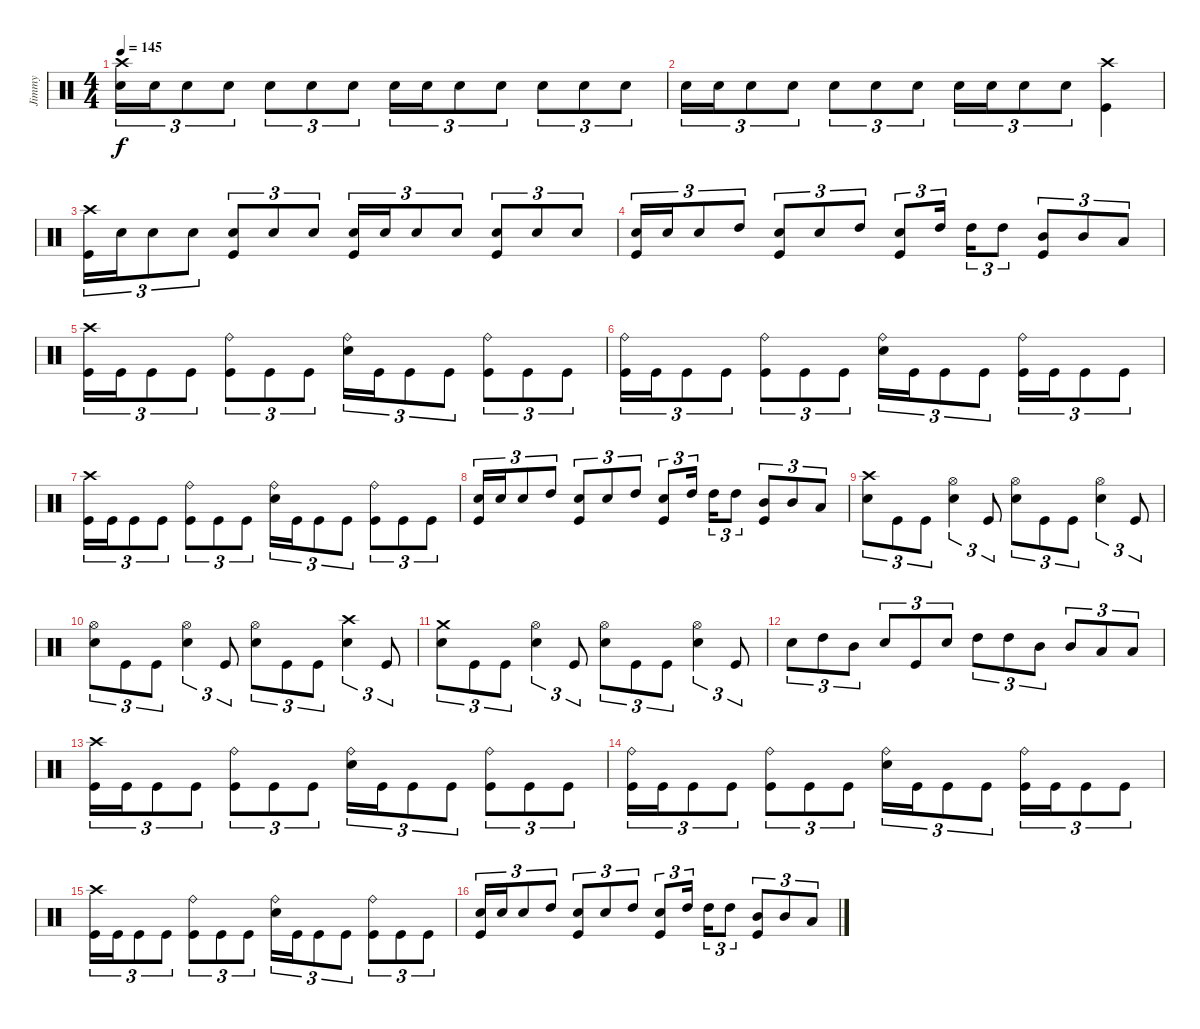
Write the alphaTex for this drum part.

\track ("Jimmy" "Jimmy") {instrument percussion}
\staff {score}
\articulation defaults
\ts (4 4)
\tempo 145
\clef neutral
\ks c
("Snare (hit) 2" "Crash high (hit)").16{tu (3 2) dy f volume 16} "Snare (hit) 2".16{tu (3 2)} "Snare (hit) 2".8{tu (3 2)} "Snare (hit) 2".8{tu (3 2)} "Snare (hit) 2".8{tu (3 2)} "Snare (hit) 2".8{tu (3 2)} "Snare (hit) 2".8{tu (3 2)} "Snare (hit) 2".16{tu (3 2)} "Snare (hit) 2".16{tu (3 2)} "Snare (hit) 2".8{tu (3 2)} "Snare (hit) 2".8{tu (3 2)} "Snare (hit) 2".8{tu (3 2)} "Snare (hit) 2".8{tu (3 2)} "Snare (hit) 2".8{tu (3 2)} |
"Snare (hit) 2".16{tu (3 2)} "Snare (hit) 2".16{tu (3 2)} "Snare (hit) 2".8{tu (3 2)} "Snare (hit) 2".8{tu (3 2)} "Snare (hit) 2".8{tu (3 2)} "Snare (hit) 2".8{tu (3 2)} "Snare (hit) 2".8{tu (3 2)} "Snare (hit) 2".16{tu (3 2)} "Snare (hit) 2".16{tu (3 2)} "Snare (hit) 2".8{tu (3 2)} "Snare (hit) 2".8{tu (3 2)} ("Kick (hit)" "Crash high (hit)").4 |
("Kick (hit)" "Crash high (hit)").16{tu (3 2)} "Snare (hit) 2".16{tu (3 2)} "Snare (hit) 2".8{tu (3 2)} "Snare (hit) 2".8{tu (3 2)} ("Snare (hit) 2" "Kick (hit)").8{tu (3 2)} "Snare (hit) 2".8{tu (3 2)} "Snare (hit) 2".8{tu (3 2)} ("Snare (hit) 2" "Kick (hit)").16{tu (3 2)} "Snare (hit) 2".16{tu (3 2)} "Snare (hit) 2".8{tu (3 2)} "Snare (hit) 2".8{tu (3 2)} ("Snare (hit) 2" "Kick (hit)").8{tu (3 2)} "Snare (hit) 2".8{tu (3 2)} "Snare (hit) 2".8{tu (3 2)} |
("Snare (hit) 2" "Kick (hit)").16{tu (3 2)} "Snare (hit) 2".16{tu (3 2)} "Snare (hit) 2".8{tu (3 2)} "High Tom (hit)".8{tu (3 2)} ("Snare (hit) 2" "Kick (hit)").8{tu (3 2)} "Snare (hit) 2".8{tu (3 2)} "High Tom (hit)".8{tu (3 2)} ("Snare (hit) 2" "Kick (hit)").8{tu (3 2)} "High Tom (hit)".16{tu (3 2) beam splitsecondary} "High Tom (hit)".16{tu (3 2)} "High Tom (hit)".8{tu (3 2)} ("Mid Tom (hit)" "Kick (hit)").8{tu (3 2)} "Mid Tom (hit)".8{tu (3 2)} "Low Tom (hit)".8{tu (3 2)} |
("Crash high (hit)" "Kick (hit)").16{tu (3 2)} "Kick (hit)".16{tu (3 2)} "Kick (hit)".8{tu (3 2)} "Kick (hit)".8{tu (3 2)} ("Kick (hit)" "Ride (bell)").8{tu (3 2)} "Kick (hit)".8{tu (3 2)} "Kick (hit)".8{tu (3 2)} ("Snare (hit) 2" "Ride (bell)").16{tu (3 2)} "Kick (hit)".16{tu (3 2)} "Kick (hit)".8{tu (3 2)} "Kick (hit)".8{tu (3 2)} ("Kick (hit)" "Ride (bell)").8{tu (3 2)} "Kick (hit)".8{tu (3 2)} "Kick (hit)".8{tu (3 2)} |
("Ride (bell)" "Kick (hit)").16{tu (3 2)} "Kick (hit)".16{tu (3 2)} "Kick (hit)".8{tu (3 2)} "Kick (hit)".8{tu (3 2)} ("Kick (hit)" "Ride (bell)").8{tu (3 2)} "Kick (hit)".8{tu (3 2)} "Kick (hit)".8{tu (3 2)} ("Snare (hit) 2" "Ride (bell)").16{tu (3 2)} "Kick (hit)".16{tu (3 2)} "Kick (hit)".8{tu (3 2)} "Kick (hit)".8{tu (3 2)} ("Kick (hit)" "Ride (bell)").16{tu (3 2)} "Kick (hit)".16{tu (3 2)} "Kick (hit)".8{tu (3 2)} "Kick (hit)".8{tu (3 2)} |
("Crash high (hit)" "Kick (hit)").16{tu (3 2)} "Kick (hit)".16{tu (3 2)} "Kick (hit)".8{tu (3 2)} "Kick (hit)".8{tu (3 2)} ("Kick (hit)" "Ride (bell)").8{tu (3 2)} "Kick (hit)".8{tu (3 2)} "Kick (hit)".8{tu (3 2)} ("Snare (hit) 2" "Ride (bell)").16{tu (3 2)} "Kick (hit)".16{tu (3 2)} "Kick (hit)".8{tu (3 2)} "Kick (hit)".8{tu (3 2)} ("Kick (hit)" "Ride (bell)").8{tu (3 2)} "Kick (hit)".8{tu (3 2)} "Kick (hit)".8{tu (3 2)} |
("Snare (hit) 2" "Kick (hit)").16{tu (3 2)} "Snare (hit) 2".16{tu (3 2)} "Snare (hit) 2".8{tu (3 2)} "High Tom (hit)".8{tu (3 2)} ("Snare (hit) 2" "Kick (hit)").8{tu (3 2)} "Snare (hit) 2".8{tu (3 2)} "High Tom (hit)".8{tu (3 2)} ("Snare (hit) 2" "Kick (hit)").8{tu (3 2)} "High Tom (hit)".16{tu (3 2) beam splitsecondary} "High Tom (hit)".16{tu (3 2)} "High Tom (hit)".8{tu (3 2)} ("Mid Tom (hit)" "Kick (hit)").8{tu (3 2)} "Mid Tom (hit)".8{tu (3 2)} "Low Tom (hit)".8{tu (3 2)} |
("Snare (hit) 2" "Crash high (hit)").8{tu (3 2)} "Kick (hit)".8{tu (3 2)} "Kick (hit)".8{tu (3 2)} ("Snare (hit) 2" "Hi-Hat (open)").4{tu (3 2)} "Kick (hit)".8{tu (3 2)} ("Snare (hit) 2" "Hi-Hat (open)").8{tu (3 2)} "Kick (hit)".8{tu (3 2)} "Kick (hit)".8{tu (3 2)} ("Snare (hit) 2" "Hi-Hat (open)").4{tu (3 2)} "Kick (hit)".8{tu (3 2)} |
("Snare (hit) 2" "Hi-Hat (open)").8{tu (3 2)} "Kick (hit)".8{tu (3 2)} "Kick (hit)".8{tu (3 2)} ("Snare (hit) 2" "Hi-Hat (open)").4{tu (3 2)} "Kick (hit)".8{tu (3 2)} ("Snare (hit) 2" "Hi-Hat (open)").8{tu (3 2)} "Kick (hit)".8{tu (3 2)} "Kick (hit)".8{tu (3 2)} ("Snare (hit) 2" "Crash high (hit)").4{tu (3 2)} "Kick (hit)".8{tu (3 2)} |
("Snare (hit) 2" "Crash medium (hit)").8{tu (3 2)} "Kick (hit)".8{tu (3 2)} "Kick (hit)".8{tu (3 2)} ("Snare (hit) 2" "Hi-Hat (open)").4{tu (3 2)} "Kick (hit)".8{tu (3 2)} ("Snare (hit) 2" "Hi-Hat (open)").8{tu (3 2)} "Kick (hit)".8{tu (3 2)} "Kick (hit)".8{tu (3 2)} ("Snare (hit) 2" "Hi-Hat (open)").4{tu (3 2)} "Kick (hit)".8{tu (3 2)} |
"Snare (hit) 2".8{tu (3 2)} "High Tom (hit)".8{tu (3 2)} "Mid Tom (hit)".8{tu (3 2)} "Snare (hit) 2".8{tu (3 2)} "Kick (hit)".8{tu (3 2)} "Snare (hit) 2".8{tu (3 2)} "High Tom (hit)".8{tu (3 2)} "High Tom (hit)".8{tu (3 2)} "Mid Tom (hit)".8{tu (3 2)} "Mid Tom (hit)".8{tu (3 2)} "Low Tom (hit)".8{tu (3 2)} "Low Tom (hit)".8{tu (3 2)} |
("Crash high (hit)" "Kick (hit)").16{tu (3 2)} "Kick (hit)".16{tu (3 2)} "Kick (hit)".8{tu (3 2)} "Kick (hit)".8{tu (3 2)} ("Kick (hit)" "Ride (bell)").8{tu (3 2)} "Kick (hit)".8{tu (3 2)} "Kick (hit)".8{tu (3 2)} ("Snare (hit) 2" "Ride (bell)").16{tu (3 2)} "Kick (hit)".16{tu (3 2)} "Kick (hit)".8{tu (3 2)} "Kick (hit)".8{tu (3 2)} ("Kick (hit)" "Ride (bell)").8{tu (3 2)} "Kick (hit)".8{tu (3 2)} "Kick (hit)".8{tu (3 2)} |
("Ride (bell)" "Kick (hit)").16{tu (3 2)} "Kick (hit)".16{tu (3 2)} "Kick (hit)".8{tu (3 2)} "Kick (hit)".8{tu (3 2)} ("Kick (hit)" "Ride (bell)").8{tu (3 2)} "Kick (hit)".8{tu (3 2)} "Kick (hit)".8{tu (3 2)} ("Snare (hit) 2" "Ride (bell)").16{tu (3 2)} "Kick (hit)".16{tu (3 2)} "Kick (hit)".8{tu (3 2)} "Kick (hit)".8{tu (3 2)} ("Kick (hit)" "Ride (bell)").16{tu (3 2)} "Kick (hit)".16{tu (3 2)} "Kick (hit)".8{tu (3 2)} "Kick (hit)".8{tu (3 2)} |
("Crash high (hit)" "Kick (hit)").16{tu (3 2)} "Kick (hit)".16{tu (3 2)} "Kick (hit)".8{tu (3 2)} "Kick (hit)".8{tu (3 2)} ("Kick (hit)" "Ride (bell)").8{tu (3 2)} "Kick (hit)".8{tu (3 2)} "Kick (hit)".8{tu (3 2)} ("Snare (hit) 2" "Ride (bell)").16{tu (3 2)} "Kick (hit)".16{tu (3 2)} "Kick (hit)".8{tu (3 2)} "Kick (hit)".8{tu (3 2)} ("Kick (hit)" "Ride (bell)").8{tu (3 2)} "Kick (hit)".8{tu (3 2)} "Kick (hit)".8{tu (3 2)} |
("Snare (hit) 2" "Kick (hit)").16{tu (3 2)} "Snare (hit) 2".16{tu (3 2)} "Snare (hit) 2".8{tu (3 2)} "High Tom (hit)".8{tu (3 2)} ("Snare (hit) 2" "Kick (hit)").8{tu (3 2)} "Snare (hit) 2".8{tu (3 2)} "High Tom (hit)".8{tu (3 2)} ("Snare (hit) 2" "Kick (hit)").8{tu (3 2)} "High Tom (hit)".16{tu (3 2) beam splitsecondary} "High Tom (hit)".16{tu (3 2)} "High Tom (hit)".8{tu (3 2)} ("Mid Tom (hit)" "Kick (hit)").8{tu (3 2)} "Mid Tom (hit)".8{tu (3 2)} "Low Tom (hit)".8{tu (3 2)}
